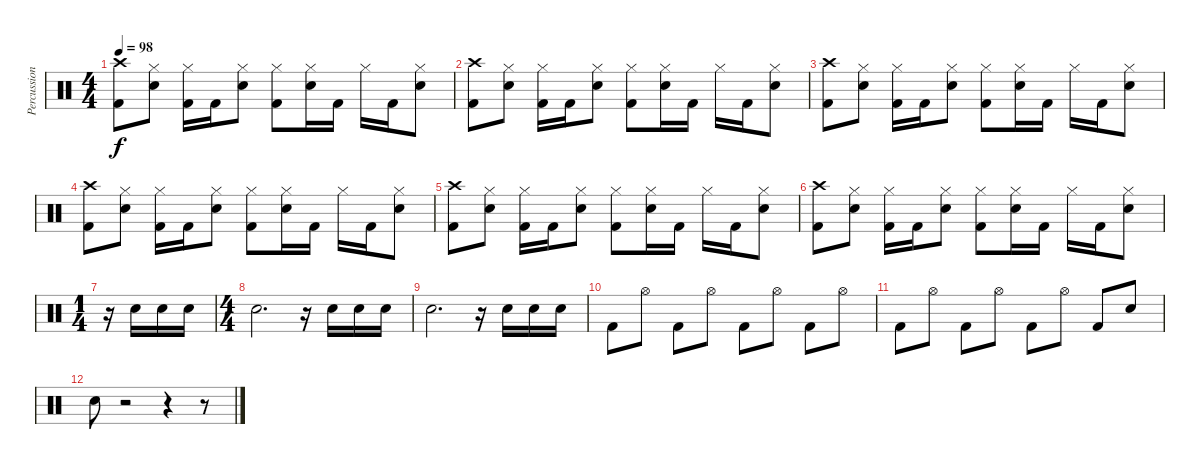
\track ("Percussions" "Percussion") {instrument percussion}
\staff
\articulation defaults
\ts (4 4)
\tempo 98
\clef neutral
\ks c
("Crash high (hit)" "Kick (hit) 2").8{dy f} ("Hi-Hat (closed)" "Electric Snare (hit)").8 ("Hi-Hat (closed)" "Kick (hit) 2").16 "Kick (hit) 2".16 ("Hi-Hat (closed)" "Electric Snare (hit)").8 ("Hi-Hat (closed)" "Kick (hit) 2").8 ("Hi-Hat (closed)" "Electric Snare (hit)").16 "Kick (hit) 2".16 "Hi-Hat (closed)".16 "Kick (hit) 2".16 ("Hi-Hat (closed)" "Electric Snare (hit)").8 |
("Crash high (hit)" "Kick (hit) 2").8 ("Hi-Hat (closed)" "Electric Snare (hit)").8 ("Hi-Hat (closed)" "Kick (hit) 2").16 "Kick (hit) 2".16 ("Hi-Hat (closed)" "Electric Snare (hit)").8 ("Hi-Hat (closed)" "Kick (hit) 2").8 ("Hi-Hat (closed)" "Electric Snare (hit)").16 "Kick (hit) 2".16 "Hi-Hat (closed)".16 "Kick (hit) 2".16 ("Hi-Hat (closed)" "Electric Snare (hit)").8 |
("Crash high (hit)" "Kick (hit) 2").8 ("Hi-Hat (closed)" "Electric Snare (hit)").8 ("Hi-Hat (closed)" "Kick (hit) 2").16 "Kick (hit) 2".16 ("Hi-Hat (closed)" "Electric Snare (hit)").8 ("Hi-Hat (closed)" "Kick (hit) 2").8 ("Hi-Hat (closed)" "Electric Snare (hit)").16 "Kick (hit) 2".16 "Hi-Hat (closed)".16 "Kick (hit) 2".16 ("Hi-Hat (closed)" "Electric Snare (hit)").8 |
("Crash high (hit)" "Kick (hit) 2").8 ("Hi-Hat (closed)" "Electric Snare (hit)").8 ("Hi-Hat (closed)" "Kick (hit) 2").16 "Kick (hit) 2".16 ("Hi-Hat (closed)" "Electric Snare (hit)").8 ("Hi-Hat (closed)" "Kick (hit) 2").8 ("Hi-Hat (closed)" "Electric Snare (hit)").16 "Kick (hit) 2".16 "Hi-Hat (closed)".16 "Kick (hit) 2".16 ("Hi-Hat (closed)" "Electric Snare (hit)").8 |
("Crash high (hit)" "Kick (hit) 2").8 ("Hi-Hat (closed)" "Electric Snare (hit)").8 ("Hi-Hat (closed)" "Kick (hit) 2").16 "Kick (hit) 2".16 ("Hi-Hat (closed)" "Electric Snare (hit)").8 ("Hi-Hat (closed)" "Kick (hit) 2").8 ("Hi-Hat (closed)" "Electric Snare (hit)").16 "Kick (hit) 2".16 "Hi-Hat (closed)".16 "Kick (hit) 2".16 ("Hi-Hat (closed)" "Electric Snare (hit)").8 |
("Crash high (hit)" "Kick (hit) 2").8 ("Hi-Hat (closed)" "Electric Snare (hit)").8 ("Hi-Hat (closed)" "Kick (hit) 2").16 "Kick (hit) 2".16 ("Hi-Hat (closed)" "Electric Snare (hit)").8 ("Hi-Hat (closed)" "Kick (hit) 2").8 ("Hi-Hat (closed)" "Electric Snare (hit)").16 "Kick (hit) 2".16 "Hi-Hat (closed)".16 "Kick (hit) 2".16 ("Hi-Hat (closed)" "Electric Snare (hit)").8 |
\ts (1 4)
r.16 "Electric Snare (hit)".16 "Electric Snare (hit)".16 "Electric Snare (hit)".16 |
\ts (4 4)
"Electric Snare (hit)".2{d} r.16 "Electric Snare (hit)".16 "Electric Snare (hit)".16 "Electric Snare (hit)".16 |
"Electric Snare (hit)".2{d} r.16 "Electric Snare (hit)".16 "Electric Snare (hit)".16 "Electric Snare (hit)".16 |
"Kick (hit) 2".8 "Hi-Hat (open)".8 "Kick (hit) 2".8 "Hi-Hat (open)".8 "Kick (hit) 2".8 "Hi-Hat (open)".8 "Kick (hit) 2".8 "Hi-Hat (open)".8 |
"Kick (hit) 2".8 "Hi-Hat (open)".8 "Kick (hit) 2".8 "Hi-Hat (open)".8 "Kick (hit) 2".8 "Hi-Hat (open)".8 "Kick (hit) 2".8 "Electric Snare (hit)".8 |
"Electric Snare (hit)".8 r.2 r.4 r.8
